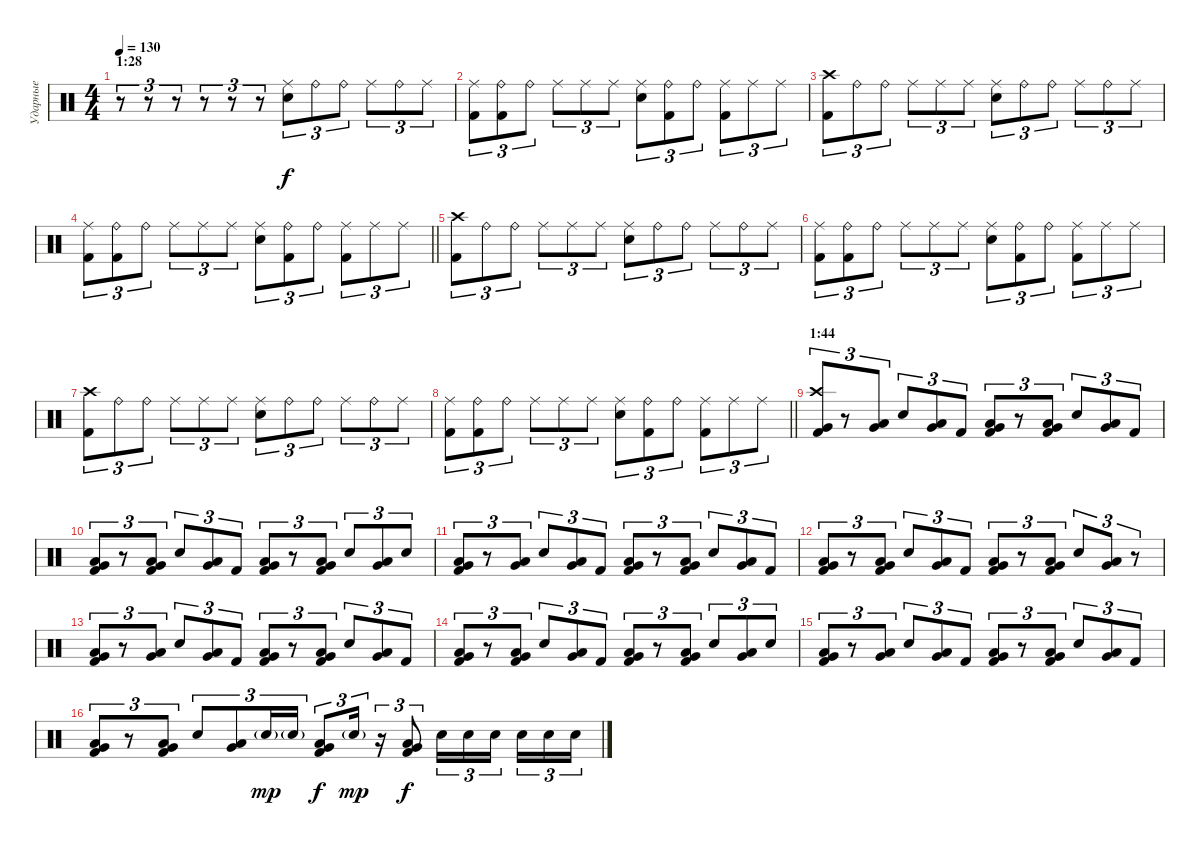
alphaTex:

\track ("Ударные" "Ударные") {instrument percussion}
\staff {score}
\articulation defaults
\ts (4 4)
\section ("" "1:28")
\tempo 130
\clef neutral
\ks c
r.8{tu (3 2) dy f} r.8{tu (3 2)} r.8{tu (3 2)} r.8{tu (3 2)} r.8{tu (3 2)} r.8{tu (3 2)} ("Ride (middle)" "Electric Snare (hit)").8{tu (3 2)} "Ride (bell)".8{tu (3 2)} "Ride (bell)".8{tu (3 2)} "Ride (middle)".8{tu (3 2)} "Ride (bell)".8{tu (3 2)} "Ride (middle)".8{tu (3 2)} |
("Ride (middle)" "Kick (hit) 2").8{tu (3 2)} ("Ride (bell)" "Kick (hit) 2").8{tu (3 2)} "Ride (bell)".8{tu (3 2)} "Ride (middle)".8{tu (3 2)} "Ride (middle)".8{tu (3 2)} "Ride (middle)".8{tu (3 2)} ("Ride (middle)" "Electric Snare (hit)").8{tu (3 2)} ("Ride (bell)" "Kick (hit) 2").8{tu (3 2)} "Ride (bell)".8{tu (3 2)} ("Ride (middle)" "Kick (hit) 2").8{tu (3 2)} "Ride (middle)".8{tu (3 2)} "Ride (middle)".8{tu (3 2)} |
("Crash high (hit)" "Kick (hit) 2").8{tu (3 2)} "Ride (bell)".8{tu (3 2)} "Ride (bell)".8{tu (3 2)} "Ride (middle)".8{tu (3 2)} "Ride (middle)".8{tu (3 2)} "Ride (middle)".8{tu (3 2)} ("Ride (middle)" "Electric Snare (hit)").8{tu (3 2)} "Ride (bell)".8{tu (3 2)} "Ride (bell)".8{tu (3 2)} "Ride (middle)".8{tu (3 2)} "Ride (bell)".8{tu (3 2)} "Ride (middle)".8{tu (3 2)} |
\barLineRight lightlight
("Ride (middle)" "Kick (hit) 2").8{tu (3 2)} ("Ride (bell)" "Kick (hit) 2").8{tu (3 2)} "Ride (bell)".8{tu (3 2)} "Ride (middle)".8{tu (3 2)} "Ride (middle)".8{tu (3 2)} "Ride (middle)".8{tu (3 2)} ("Ride (middle)" "Electric Snare (hit)").8{tu (3 2)} ("Ride (bell)" "Kick (hit) 2").8{tu (3 2)} "Ride (bell)".8{tu (3 2)} ("Ride (middle)" "Kick (hit) 2").8{tu (3 2)} "Ride (middle)".8{tu (3 2)} "Ride (middle)".8{tu (3 2)} |
("Crash high (hit)" "Kick (hit) 2").8{tu (3 2)} "Ride (bell)".8{tu (3 2)} "Ride (bell)".8{tu (3 2)} "Ride (middle)".8{tu (3 2)} "Ride (middle)".8{tu (3 2)} "Ride (middle)".8{tu (3 2)} ("Ride (middle)" "Electric Snare (hit)").8{tu (3 2)} "Ride (bell)".8{tu (3 2)} "Ride (bell)".8{tu (3 2)} "Ride (middle)".8{tu (3 2)} "Ride (bell)".8{tu (3 2)} "Ride (middle)".8{tu (3 2)} |
("Ride (middle)" "Kick (hit) 2").8{tu (3 2)} ("Ride (bell)" "Kick (hit) 2").8{tu (3 2)} "Ride (bell)".8{tu (3 2)} "Ride (middle)".8{tu (3 2)} "Ride (middle)".8{tu (3 2)} "Ride (middle)".8{tu (3 2)} ("Ride (middle)" "Electric Snare (hit)").8{tu (3 2)} ("Ride (bell)" "Kick (hit) 2").8{tu (3 2)} "Ride (bell)".8{tu (3 2)} ("Ride (middle)" "Kick (hit) 2").8{tu (3 2)} "Ride (middle)".8{tu (3 2)} "Ride (middle)".8{tu (3 2)} |
("Crash high (hit)" "Kick (hit) 2").8{tu (3 2)} "Ride (bell)".8{tu (3 2)} "Ride (bell)".8{tu (3 2)} "Ride (middle)".8{tu (3 2)} "Ride (middle)".8{tu (3 2)} "Ride (middle)".8{tu (3 2)} ("Ride (middle)" "Electric Snare (hit)").8{tu (3 2)} "Ride (bell)".8{tu (3 2)} "Ride (bell)".8{tu (3 2)} "Ride (middle)".8{tu (3 2)} "Ride (bell)".8{tu (3 2)} "Ride (middle)".8{tu (3 2)} |
\barLineRight lightlight
("Ride (middle)" "Kick (hit) 2").8{tu (3 2)} ("Ride (bell)" "Kick (hit) 2").8{tu (3 2)} "Ride (bell)".8{tu (3 2)} "Ride (middle)".8{tu (3 2)} "Ride (middle)".8{tu (3 2)} "Ride (middle)".8{tu (3 2)} ("Ride (middle)" "Electric Snare (hit)").8{tu (3 2)} ("Ride (bell)" "Kick (hit) 2").8{tu (3 2)} "Ride (bell)".8{tu (3 2)} ("Ride (middle)" "Kick (hit) 2").8{tu (3 2)} "Ride (middle)".8{tu (3 2)} "Ride (middle)".8{tu (3 2)} |
\section ("" "1:44")
("Crash high (hit)" "Kick (hit) 2" "Very Low Tom (hit)").8{tu (3 2)} r.8{tu (3 2)} ("Low Floor Tom (hit)" "Very Low Tom (hit)").8{tu (3 2)} "Electric Snare (hit)".8{tu (3 2)} ("Low Floor Tom (hit)" "Very Low Tom (hit)").8{tu (3 2)} "Kick (hit) 2".8{tu (3 2)} ("Low Floor Tom (hit)" "Kick (hit) 2" "Very Low Tom (hit)").8{tu (3 2)} r.8{tu (3 2)} ("Low Floor Tom (hit)" "Kick (hit) 2" "Very Low Tom (hit)").8{tu (3 2)} "Electric Snare (hit)".8{tu (3 2)} ("Low Floor Tom (hit)" "Very Low Tom (hit)").8{tu (3 2)} "Kick (hit) 2".8{tu (3 2)} |
("Low Floor Tom (hit)" "Kick (hit) 2" "Very Low Tom (hit)").8{tu (3 2)} r.8{tu (3 2)} ("Low Floor Tom (hit)" "Kick (hit) 2" "Very Low Tom (hit)").8{tu (3 2)} "Electric Snare (hit)".8{tu (3 2)} ("Low Floor Tom (hit)" "Very Low Tom (hit)").8{tu (3 2)} "Kick (hit) 2".8{tu (3 2)} ("Low Floor Tom (hit)" "Kick (hit) 2" "Very Low Tom (hit)").8{tu (3 2)} r.8{tu (3 2)} ("Low Floor Tom (hit)" "Kick (hit) 2" "Very Low Tom (hit)").8{tu (3 2)} "Electric Snare (hit)".8{tu (3 2)} ("Low Floor Tom (hit)" "Very Low Tom (hit)").8{tu (3 2)} "Electric Snare (hit)".8{tu (3 2)} |
("Low Floor Tom (hit)" "Kick (hit) 2" "Very Low Tom (hit)").8{tu (3 2)} r.8{tu (3 2)} ("Low Floor Tom (hit)" "Very Low Tom (hit)").8{tu (3 2)} "Electric Snare (hit)".8{tu (3 2)} ("Low Floor Tom (hit)" "Very Low Tom (hit)").8{tu (3 2)} "Kick (hit) 2".8{tu (3 2)} ("Low Floor Tom (hit)" "Kick (hit) 2" "Very Low Tom (hit)").8{tu (3 2)} r.8{tu (3 2)} ("Low Floor Tom (hit)" "Kick (hit) 2" "Very Low Tom (hit)").8{tu (3 2)} "Electric Snare (hit)".8{tu (3 2)} ("Low Floor Tom (hit)" "Very Low Tom (hit)").8{tu (3 2)} "Kick (hit) 2".8{tu (3 2)} |
("Low Floor Tom (hit)" "Kick (hit) 2" "Very Low Tom (hit)").8{tu (3 2)} r.8{tu (3 2)} ("Low Floor Tom (hit)" "Kick (hit) 2" "Very Low Tom (hit)").8{tu (3 2)} "Electric Snare (hit)".8{tu (3 2)} ("Low Floor Tom (hit)" "Very Low Tom (hit)").8{tu (3 2)} "Kick (hit) 2".8{tu (3 2)} ("Low Floor Tom (hit)" "Kick (hit) 2" "Very Low Tom (hit)").8{tu (3 2)} r.8{tu (3 2)} ("Low Floor Tom (hit)" "Kick (hit) 2" "Very Low Tom (hit)").8{tu (3 2)} "Electric Snare (hit)".8{tu (3 2)} ("Low Floor Tom (hit)" "Very Low Tom (hit)").8{tu (3 2)} r.8{tu (3 2)} |
("Low Floor Tom (hit)" "Kick (hit) 2" "Very Low Tom (hit)").8{tu (3 2)} r.8{tu (3 2)} ("Low Floor Tom (hit)" "Very Low Tom (hit)").8{tu (3 2)} "Electric Snare (hit)".8{tu (3 2)} ("Low Floor Tom (hit)" "Very Low Tom (hit)").8{tu (3 2)} "Kick (hit) 2".8{tu (3 2)} ("Low Floor Tom (hit)" "Kick (hit) 2" "Very Low Tom (hit)").8{tu (3 2)} r.8{tu (3 2)} ("Low Floor Tom (hit)" "Kick (hit) 2" "Very Low Tom (hit)").8{tu (3 2)} "Electric Snare (hit)".8{tu (3 2)} ("Low Floor Tom (hit)" "Very Low Tom (hit)").8{tu (3 2)} "Kick (hit) 2".8{tu (3 2)} |
("Low Floor Tom (hit)" "Kick (hit) 2" "Very Low Tom (hit)").8{tu (3 2)} r.8{tu (3 2)} ("Low Floor Tom (hit)" "Kick (hit) 2" "Very Low Tom (hit)").8{tu (3 2)} "Electric Snare (hit)".8{tu (3 2)} ("Low Floor Tom (hit)" "Very Low Tom (hit)").8{tu (3 2)} "Kick (hit) 2".8{tu (3 2)} ("Low Floor Tom (hit)" "Kick (hit) 2" "Very Low Tom (hit)").8{tu (3 2)} r.8{tu (3 2)} ("Low Floor Tom (hit)" "Kick (hit) 2" "Very Low Tom (hit)").8{tu (3 2)} "Electric Snare (hit)".8{tu (3 2)} ("Low Floor Tom (hit)" "Very Low Tom (hit)").8{tu (3 2)} "Electric Snare (hit)".8{tu (3 2)} |
("Low Floor Tom (hit)" "Kick (hit) 2" "Very Low Tom (hit)").8{tu (3 2)} r.8{tu (3 2)} ("Low Floor Tom (hit)" "Very Low Tom (hit)").8{tu (3 2)} "Electric Snare (hit)".8{tu (3 2)} ("Low Floor Tom (hit)" "Very Low Tom (hit)").8{tu (3 2)} "Kick (hit) 2".8{tu (3 2)} ("Low Floor Tom (hit)" "Kick (hit) 2" "Very Low Tom (hit)").8{tu (3 2)} r.8{tu (3 2)} ("Low Floor Tom (hit)" "Kick (hit) 2" "Very Low Tom (hit)").8{tu (3 2)} "Electric Snare (hit)".8{tu (3 2)} ("Low Floor Tom (hit)" "Very Low Tom (hit)").8{tu (3 2)} "Kick (hit) 2".8{tu (3 2)} |
("Low Floor Tom (hit)" "Kick (hit) 2" "Very Low Tom (hit)").8{tu (3 2)} r.8{tu (3 2)} ("Low Floor Tom (hit)" "Kick (hit) 2" "Very Low Tom (hit)").8{tu (3 2)} "Electric Snare (hit)".8{tu (3 2)} ("Low Floor Tom (hit)" "Very Low Tom (hit)").8{tu (3 2)} "Electric Snare (hit)"{g}.16{tu (3 2) dy mp} "Electric Snare (hit)"{g}.16{tu (3 2)} ("Low Floor Tom (hit)" "Kick (hit) 2" "Very Low Tom (hit)").8{tu (3 2) dy f} "Electric Snare (hit)"{g}.16{tu (3 2) dy mp} r.16{tu (3 2)} ("Low Floor Tom (hit)" "Kick (hit) 2" "Very Low Tom (hit)").8{tu (3 2) dy f} "Electric Snare (hit)".16{tu (3 2)} "Electric Snare (hit)".16{tu (3 2)} "Electric Snare (hit)".16{tu (3 2) beam splitsecondary} "Electric Snare (hit)".16{tu (3 2)} "Electric Snare (hit)".16{tu (3 2)} "Electric Snare (hit)".16{tu (3 2)}
